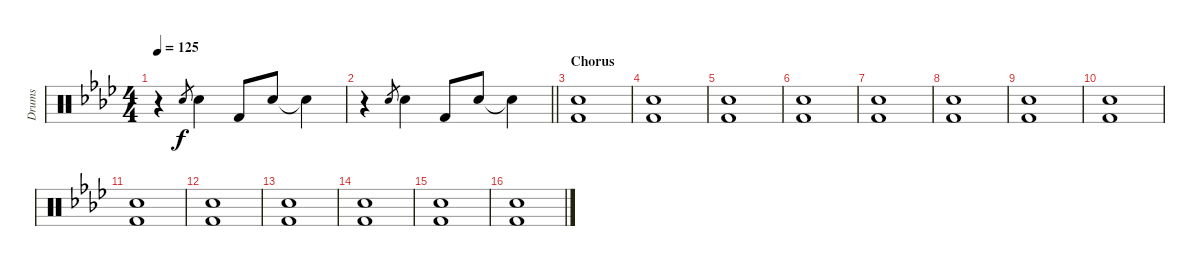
\track ("Drums" "Drums") {instrument percussion}
\staff {score}
\articulation defaults
\ts (4 4)
\tempo 125
\clef neutral
\ks ab
r.4{dy f} "Electric Snare (hit)".8{gr} "Electric Snare (hit)".4 "Kick (hit) 2".8 "Electric Snare (hit)".8 "Electric Snare (hit)"{t}.4 |
\barLineRight lightlight
r.4 "Electric Snare (hit)".8{gr} "Electric Snare (hit)".4 "Kick (hit) 2".8 "Electric Snare (hit)".8 "Electric Snare (hit)"{t}.4 |
\section ("" "Chorus")
("Electric Snare (hit)" "Kick (hit) 2").1 |
("Electric Snare (hit)" "Kick (hit) 2").1 |
("Electric Snare (hit)" "Kick (hit) 2").1 |
("Electric Snare (hit)" "Kick (hit) 2").1 |
("Electric Snare (hit)" "Kick (hit) 2").1 |
("Electric Snare (hit)" "Kick (hit) 2").1 |
("Electric Snare (hit)" "Kick (hit) 2").1 |
("Electric Snare (hit)" "Kick (hit) 2").1 |
("Electric Snare (hit)" "Kick (hit) 2").1 |
("Electric Snare (hit)" "Kick (hit) 2").1 |
("Electric Snare (hit)" "Kick (hit) 2").1 |
("Electric Snare (hit)" "Kick (hit) 2").1 |
("Electric Snare (hit)" "Kick (hit) 2").1 |
("Electric Snare (hit)" "Kick (hit) 2").1
